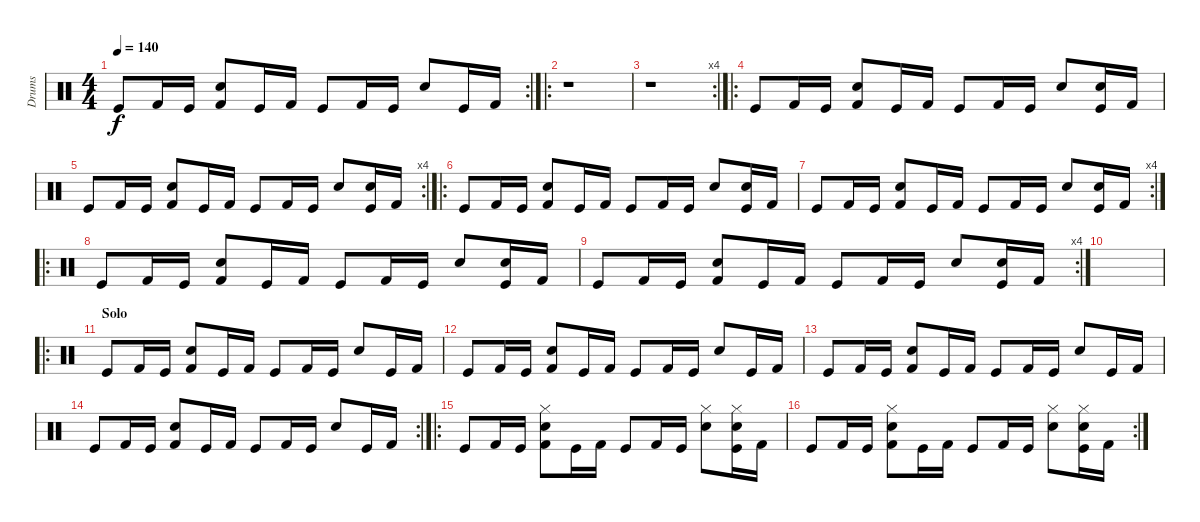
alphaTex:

\track ("Drums" "Drums") {instrument percussion}
\staff {score}
\articulation defaults
\rc 2
\ts (4 4)
\tempo 140
\clef neutral
\ks c "Kick (hit)".8{dy f} "Kick (hit) 2".16 "Kick (hit)".16
("Snare (hit) 2" "Kick (hit) 2").8 "Kick (hit)".16 "Kick (hit) 2".16 "Kick (hit)".8 "Kick (hit) 2".16 "Kick (hit)".16 "Snare (hit) 2".8 "Kick (hit)".16 "Kick (hit) 2".16 |
\ro
r.1 |
\rc 4
r.1 |
\ro "Kick (hit)".8 "Kick (hit) 2".16 "Kick (hit)".16
("Snare (hit) 2" "Kick (hit) 2").8 "Kick (hit)".16 "Kick (hit) 2".16 "Kick (hit)".8 "Kick (hit) 2".16 "Kick (hit)".16 "Snare (hit) 2".8 ("Snare (hit) 2" "Kick (hit)").16 "Kick (hit) 2".16 |
\rc 4 "Kick (hit)".8 "Kick (hit) 2".16 "Kick (hit)".16
("Snare (hit) 2" "Kick (hit) 2").8 "Kick (hit)".16 "Kick (hit) 2".16 "Kick (hit)".8 "Kick (hit) 2".16 "Kick (hit)".16 "Snare (hit) 2".8 ("Snare (hit) 2" "Kick (hit)").16 "Kick (hit) 2".16 |
\ro "Kick (hit)".8 "Kick (hit) 2".16 "Kick (hit)".16
("Snare (hit) 2" "Kick (hit) 2").8 "Kick (hit)".16 "Kick (hit) 2".16 "Kick (hit)".8 "Kick (hit) 2".16 "Kick (hit)".16 "Snare (hit) 2".8 ("Snare (hit) 2" "Kick (hit)").16 "Kick (hit) 2".16 |
\rc 4 "Kick (hit)".8 "Kick (hit) 2".16 "Kick (hit)".16
("Snare (hit) 2" "Kick (hit) 2").8 "Kick (hit)".16 "Kick (hit) 2".16 "Kick (hit)".8 "Kick (hit) 2".16 "Kick (hit)".16 "Snare (hit) 2".8 ("Snare (hit) 2" "Kick (hit)").16 "Kick (hit) 2".16 |
\ro "Kick (hit)".8 "Kick (hit) 2".16 "Kick (hit)".16
("Snare (hit) 2" "Kick (hit) 2").8 "Kick (hit)".16 "Kick (hit) 2".16 "Kick (hit)".8 "Kick (hit) 2".16 "Kick (hit)".16 "Snare (hit) 2".8 ("Snare (hit) 2" "Kick (hit)").16 "Kick (hit) 2".16 |
\rc 4 "Kick (hit)".8 "Kick (hit) 2".16 "Kick (hit)".16
("Snare (hit) 2" "Kick (hit) 2").8 "Kick (hit)".16 "Kick (hit) 2".16 "Kick (hit)".8 "Kick (hit) 2".16 "Kick (hit)".16 "Snare (hit) 2".8 ("Snare (hit) 2" "Kick (hit)").16 "Kick (hit) 2".16 |
|
\ro
\section ("" "Solo")
"Kick (hit)".8 "Kick (hit) 2".16 "Kick (hit)".16 ("Snare (hit) 2" "Kick (hit) 2").8 "Kick (hit)".16 "Kick (hit) 2".16 "Kick (hit)".8 "Kick (hit) 2".16 "Kick (hit)".16 "Snare (hit) 2".8 "Kick (hit)".16 "Kick (hit) 2".16 |
"Kick (hit)".8 "Kick (hit) 2".16 "Kick (hit)".16 ("Snare (hit) 2" "Kick (hit) 2").8 "Kick (hit)".16 "Kick (hit) 2".16 "Kick (hit)".8 "Kick (hit) 2".16 "Kick (hit)".16 "Snare (hit) 2".8 "Kick (hit)".16 "Kick (hit) 2".16 |
"Kick (hit)".8 "Kick (hit) 2".16 "Kick (hit)".16 ("Snare (hit) 2" "Kick (hit) 2").8 "Kick (hit)".16 "Kick (hit) 2".16 "Kick (hit)".8 "Kick (hit) 2".16 "Kick (hit)".16 "Snare (hit) 2".8 "Kick (hit)".16 "Kick (hit) 2".16 |
\rc 2 "Kick (hit)".8 "Kick (hit) 2".16 "Kick (hit)".16
("Snare (hit) 2" "Kick (hit) 2").8 "Kick (hit)".16 "Kick (hit) 2".16 "Kick (hit)".8 "Kick (hit) 2".16 "Kick (hit)".16 "Snare (hit) 2".8 "Kick (hit)".16 "Kick (hit) 2".16 |
\ro "Kick (hit)".8 "Kick (hit) 2".16 "Kick (hit)".16
("Hi-Hat (closed)" "Snare (hit) 2" "Kick (hit) 2").8 "Kick (hit)".16 "Kick (hit) 2".16 "Kick (hit)".8 "Kick (hit) 2".16 "Kick (hit)".16 ("Hi-Hat (closed)" "Snare (hit) 2").8 ("Hi-Hat (closed)" "Snare (hit) 2" "Kick (hit)").16 "Kick (hit) 2".16 |
\rc 2 "Kick (hit)".8 "Kick (hit) 2".16 "Kick (hit)".16
("Hi-Hat (closed)" "Snare (hit) 2" "Kick (hit) 2").8 "Kick (hit)".16 "Kick (hit) 2".16 "Kick (hit)".8 "Kick (hit) 2".16 "Kick (hit)".16 ("Hi-Hat (closed)" "Snare (hit) 2").8 ("Hi-Hat (closed)" "Snare (hit) 2" "Kick (hit)").16 "Kick (hit) 2".16
